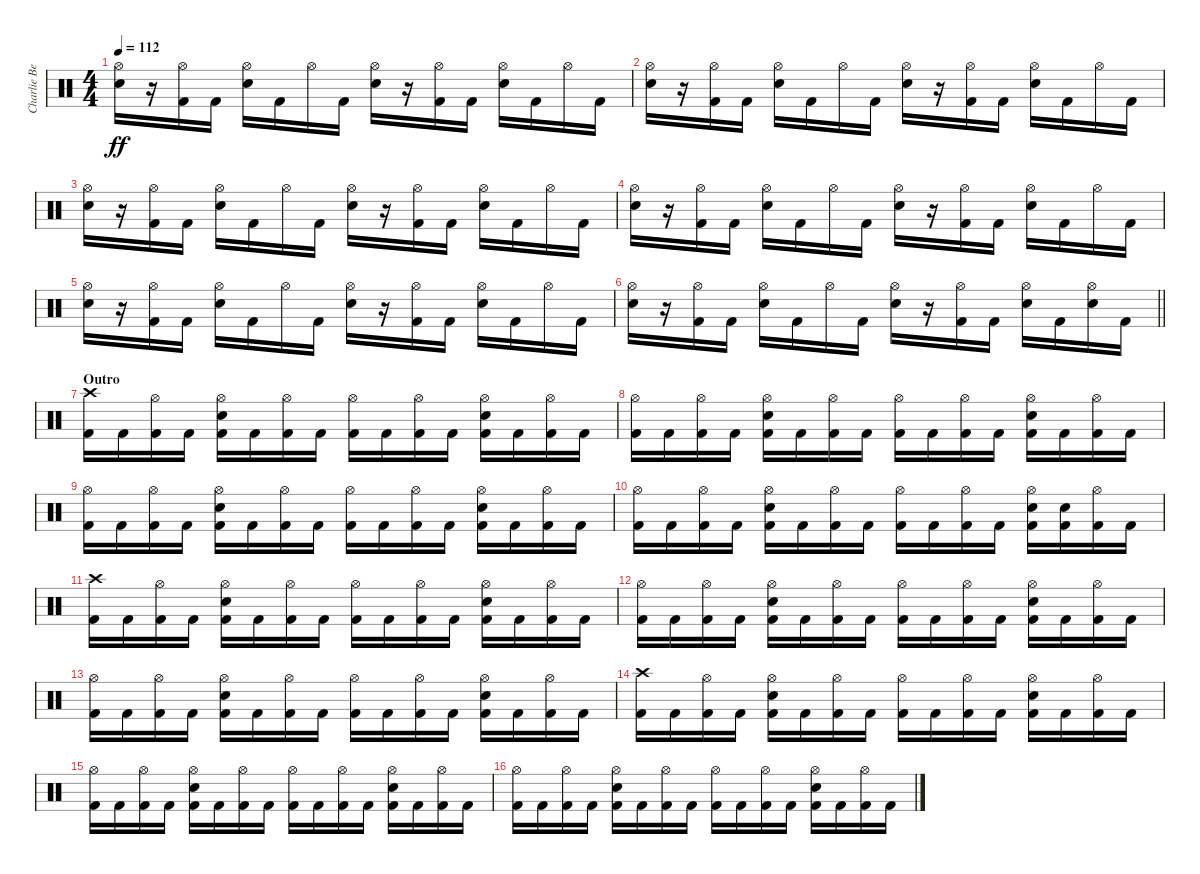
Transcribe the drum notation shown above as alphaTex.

\track ("Charlie Benante" "Charlie Be") {instrument percussion}
\staff {score}
\articulation defaults
\ts (4 4)
\tempo 112
\clef neutral
\ks c
("Hi-Hat (open)" "Snare (hit) 2").16{dy ff} r.16 ("Hi-Hat (open)" "Kick (hit) 2").16 "Kick (hit) 2".16 ("Hi-Hat (open)" "Snare (hit) 2").16 "Kick (hit) 2".16 "Hi-Hat (open)".16 "Kick (hit) 2".16 ("Hi-Hat (open)" "Snare (hit) 2").16 r.16 ("Hi-Hat (open)" "Kick (hit) 2").16 "Kick (hit) 2".16 ("Hi-Hat (open)" "Snare (hit) 2").16 "Kick (hit) 2".16 "Hi-Hat (open)".16 "Kick (hit) 2".16 |
("Hi-Hat (open)" "Snare (hit) 2").16 r.16 ("Hi-Hat (open)" "Kick (hit) 2").16 "Kick (hit) 2".16 ("Hi-Hat (open)" "Snare (hit) 2").16 "Kick (hit) 2".16 "Hi-Hat (open)".16 "Kick (hit) 2".16 ("Hi-Hat (open)" "Snare (hit) 2").16 r.16 ("Hi-Hat (open)" "Kick (hit) 2").16 "Kick (hit) 2".16 ("Hi-Hat (open)" "Snare (hit) 2").16 "Kick (hit) 2".16 "Hi-Hat (open)".16 "Kick (hit) 2".16 |
("Hi-Hat (open)" "Snare (hit) 2").16 r.16 ("Hi-Hat (open)" "Kick (hit) 2").16 "Kick (hit) 2".16 ("Hi-Hat (open)" "Snare (hit) 2").16 "Kick (hit) 2".16 "Hi-Hat (open)".16 "Kick (hit) 2".16 ("Hi-Hat (open)" "Snare (hit) 2").16 r.16 ("Hi-Hat (open)" "Kick (hit) 2").16 "Kick (hit) 2".16 ("Hi-Hat (open)" "Snare (hit) 2").16 "Kick (hit) 2".16 "Hi-Hat (open)".16 "Kick (hit) 2".16 |
("Hi-Hat (open)" "Snare (hit) 2").16 r.16 ("Hi-Hat (open)" "Kick (hit) 2").16 "Kick (hit) 2".16 ("Hi-Hat (open)" "Snare (hit) 2").16 "Kick (hit) 2".16 "Hi-Hat (open)".16 "Kick (hit) 2".16 ("Hi-Hat (open)" "Snare (hit) 2").16 r.16 ("Hi-Hat (open)" "Kick (hit) 2").16 "Kick (hit) 2".16 ("Hi-Hat (open)" "Snare (hit) 2").16 "Kick (hit) 2".16 "Hi-Hat (open)".16 "Kick (hit) 2".16 |
("Hi-Hat (open)" "Snare (hit) 2").16 r.16 ("Hi-Hat (open)" "Kick (hit) 2").16 "Kick (hit) 2".16 ("Hi-Hat (open)" "Snare (hit) 2").16 "Kick (hit) 2".16 "Hi-Hat (open)".16 "Kick (hit) 2".16 ("Hi-Hat (open)" "Snare (hit) 2").16 r.16 ("Hi-Hat (open)" "Kick (hit) 2").16 "Kick (hit) 2".16 ("Hi-Hat (open)" "Snare (hit) 2").16 "Kick (hit) 2".16 "Hi-Hat (open)".16 "Kick (hit) 2".16 |
\barLineRight lightlight
("Hi-Hat (open)" "Snare (hit) 2").16 r.16 ("Hi-Hat (open)" "Kick (hit) 2").16 "Kick (hit) 2".16 ("Hi-Hat (open)" "Snare (hit) 2").16 "Kick (hit) 2".16 "Hi-Hat (open)".16 "Kick (hit) 2".16 ("Hi-Hat (open)" "Snare (hit) 2").16 r.16 ("Hi-Hat (open)" "Kick (hit) 2").16 "Kick (hit) 2".16 ("Hi-Hat (open)" "Snare (hit) 2").16 "Kick (hit) 2".16 ("Hi-Hat (open)" "Snare (hit) 2").16 "Kick (hit) 2".16 |
\section ("" "Outro")
("Crash high (hit)" "Kick (hit) 2").16 "Kick (hit) 2".16 ("Hi-Hat (open)" "Kick (hit) 2").16 "Kick (hit) 2".16 ("Hi-Hat (open)" "Snare (hit) 2" "Kick (hit) 2").16 "Kick (hit) 2".16 ("Hi-Hat (open)" "Kick (hit) 2").16 "Kick (hit) 2".16 ("Hi-Hat (open)" "Kick (hit) 2").16 "Kick (hit) 2".16 ("Hi-Hat (open)" "Kick (hit) 2").16 "Kick (hit) 2".16 ("Hi-Hat (open)" "Snare (hit) 2" "Kick (hit) 2").16 "Kick (hit) 2".16 ("Hi-Hat (open)" "Kick (hit) 2").16 "Kick (hit) 2".16 |
("Hi-Hat (open)" "Kick (hit) 2").16 "Kick (hit) 2".16 ("Hi-Hat (open)" "Kick (hit) 2").16 "Kick (hit) 2".16 ("Hi-Hat (open)" "Snare (hit) 2" "Kick (hit) 2").16 "Kick (hit) 2".16 ("Hi-Hat (open)" "Kick (hit) 2").16 "Kick (hit) 2".16 ("Hi-Hat (open)" "Kick (hit) 2").16 "Kick (hit) 2".16 ("Hi-Hat (open)" "Kick (hit) 2").16 "Kick (hit) 2".16 ("Hi-Hat (open)" "Snare (hit) 2" "Kick (hit) 2").16 "Kick (hit) 2".16 ("Hi-Hat (open)" "Kick (hit) 2").16 "Kick (hit) 2".16 |
("Hi-Hat (open)" "Kick (hit) 2").16 "Kick (hit) 2".16 ("Hi-Hat (open)" "Kick (hit) 2").16 "Kick (hit) 2".16 ("Hi-Hat (open)" "Snare (hit) 2" "Kick (hit) 2").16 "Kick (hit) 2".16 ("Hi-Hat (open)" "Kick (hit) 2").16 "Kick (hit) 2".16 ("Hi-Hat (open)" "Kick (hit) 2").16 "Kick (hit) 2".16 ("Hi-Hat (open)" "Kick (hit) 2").16 "Kick (hit) 2".16 ("Hi-Hat (open)" "Snare (hit) 2" "Kick (hit) 2").16 "Kick (hit) 2".16 ("Hi-Hat (open)" "Kick (hit) 2").16 "Kick (hit) 2".16 |
("Hi-Hat (open)" "Kick (hit) 2").16 "Kick (hit) 2".16 ("Hi-Hat (open)" "Kick (hit) 2").16 "Kick (hit) 2".16 ("Hi-Hat (open)" "Snare (hit) 2" "Kick (hit) 2").16 "Kick (hit) 2".16 ("Hi-Hat (open)" "Kick (hit) 2").16 "Kick (hit) 2".16 ("Hi-Hat (open)" "Kick (hit) 2").16 "Kick (hit) 2".16 ("Hi-Hat (open)" "Kick (hit) 2").16 "Kick (hit) 2".16 ("Hi-Hat (open)" "Snare (hit) 2" "Kick (hit) 2").16 ("Snare (hit) 2" "Kick (hit) 2").16 ("Hi-Hat (open)" "Kick (hit) 2").16 "Kick (hit) 2".16 |
("Crash high (hit)" "Kick (hit) 2").16 "Kick (hit) 2".16 ("Hi-Hat (open)" "Kick (hit) 2").16 "Kick (hit) 2".16 ("Hi-Hat (open)" "Snare (hit) 2" "Kick (hit) 2").16 "Kick (hit) 2".16 ("Hi-Hat (open)" "Kick (hit) 2").16 "Kick (hit) 2".16 ("Hi-Hat (open)" "Kick (hit) 2").16 "Kick (hit) 2".16 ("Hi-Hat (open)" "Kick (hit) 2").16 "Kick (hit) 2".16 ("Hi-Hat (open)" "Snare (hit) 2" "Kick (hit) 2").16 "Kick (hit) 2".16 ("Hi-Hat (open)" "Kick (hit) 2").16 "Kick (hit) 2".16 |
("Hi-Hat (open)" "Kick (hit) 2").16 "Kick (hit) 2".16 ("Hi-Hat (open)" "Kick (hit) 2").16 "Kick (hit) 2".16 ("Hi-Hat (open)" "Snare (hit) 2" "Kick (hit) 2").16 "Kick (hit) 2".16 ("Hi-Hat (open)" "Kick (hit) 2").16 "Kick (hit) 2".16 ("Hi-Hat (open)" "Kick (hit) 2").16 "Kick (hit) 2".16 ("Hi-Hat (open)" "Kick (hit) 2").16 "Kick (hit) 2".16 ("Hi-Hat (open)" "Snare (hit) 2" "Kick (hit) 2").16 "Kick (hit) 2".16 ("Hi-Hat (open)" "Kick (hit) 2").16 "Kick (hit) 2".16 |
("Hi-Hat (open)" "Kick (hit) 2").16 "Kick (hit) 2".16 ("Hi-Hat (open)" "Kick (hit) 2").16 "Kick (hit) 2".16 ("Hi-Hat (open)" "Snare (hit) 2" "Kick (hit) 2").16 "Kick (hit) 2".16 ("Hi-Hat (open)" "Kick (hit) 2").16 "Kick (hit) 2".16 ("Hi-Hat (open)" "Kick (hit) 2").16 "Kick (hit) 2".16 ("Hi-Hat (open)" "Kick (hit) 2").16 "Kick (hit) 2".16 ("Hi-Hat (open)" "Snare (hit) 2" "Kick (hit) 2").16 "Kick (hit) 2".16 ("Hi-Hat (open)" "Kick (hit) 2").16 "Kick (hit) 2".16 |
("Crash high (hit)" "Kick (hit) 2").16 "Kick (hit) 2".16 ("Hi-Hat (open)" "Kick (hit) 2").16 "Kick (hit) 2".16 ("Hi-Hat (open)" "Snare (hit) 2" "Kick (hit) 2").16 "Kick (hit) 2".16 ("Hi-Hat (open)" "Kick (hit) 2").16 "Kick (hit) 2".16 ("Hi-Hat (open)" "Kick (hit) 2").16 "Kick (hit) 2".16 ("Hi-Hat (open)" "Kick (hit) 2").16 "Kick (hit) 2".16 ("Hi-Hat (open)" "Snare (hit) 2" "Kick (hit) 2").16 "Kick (hit) 2".16 ("Hi-Hat (open)" "Kick (hit) 2").16 "Kick (hit) 2".16 |
("Hi-Hat (open)" "Kick (hit) 2").16 "Kick (hit) 2".16 ("Hi-Hat (open)" "Kick (hit) 2").16 "Kick (hit) 2".16 ("Hi-Hat (open)" "Snare (hit) 2" "Kick (hit) 2").16 "Kick (hit) 2".16 ("Hi-Hat (open)" "Kick (hit) 2").16 "Kick (hit) 2".16 ("Hi-Hat (open)" "Kick (hit) 2").16 "Kick (hit) 2".16 ("Hi-Hat (open)" "Kick (hit) 2").16 "Kick (hit) 2".16 ("Hi-Hat (open)" "Snare (hit) 2" "Kick (hit) 2").16 "Kick (hit) 2".16 ("Hi-Hat (open)" "Kick (hit) 2").16 "Kick (hit) 2".16 |
("Hi-Hat (open)" "Kick (hit) 2").16 "Kick (hit) 2".16 ("Hi-Hat (open)" "Kick (hit) 2").16 "Kick (hit) 2".16 ("Hi-Hat (open)" "Snare (hit) 2" "Kick (hit) 2").16 "Kick (hit) 2".16 ("Hi-Hat (open)" "Kick (hit) 2").16 "Kick (hit) 2".16 ("Hi-Hat (open)" "Kick (hit) 2").16 "Kick (hit) 2".16 ("Hi-Hat (open)" "Kick (hit) 2").16 "Kick (hit) 2".16 ("Hi-Hat (open)" "Snare (hit) 2" "Kick (hit) 2").16 "Kick (hit) 2".16 ("Hi-Hat (open)" "Kick (hit) 2").16 "Kick (hit) 2".16
